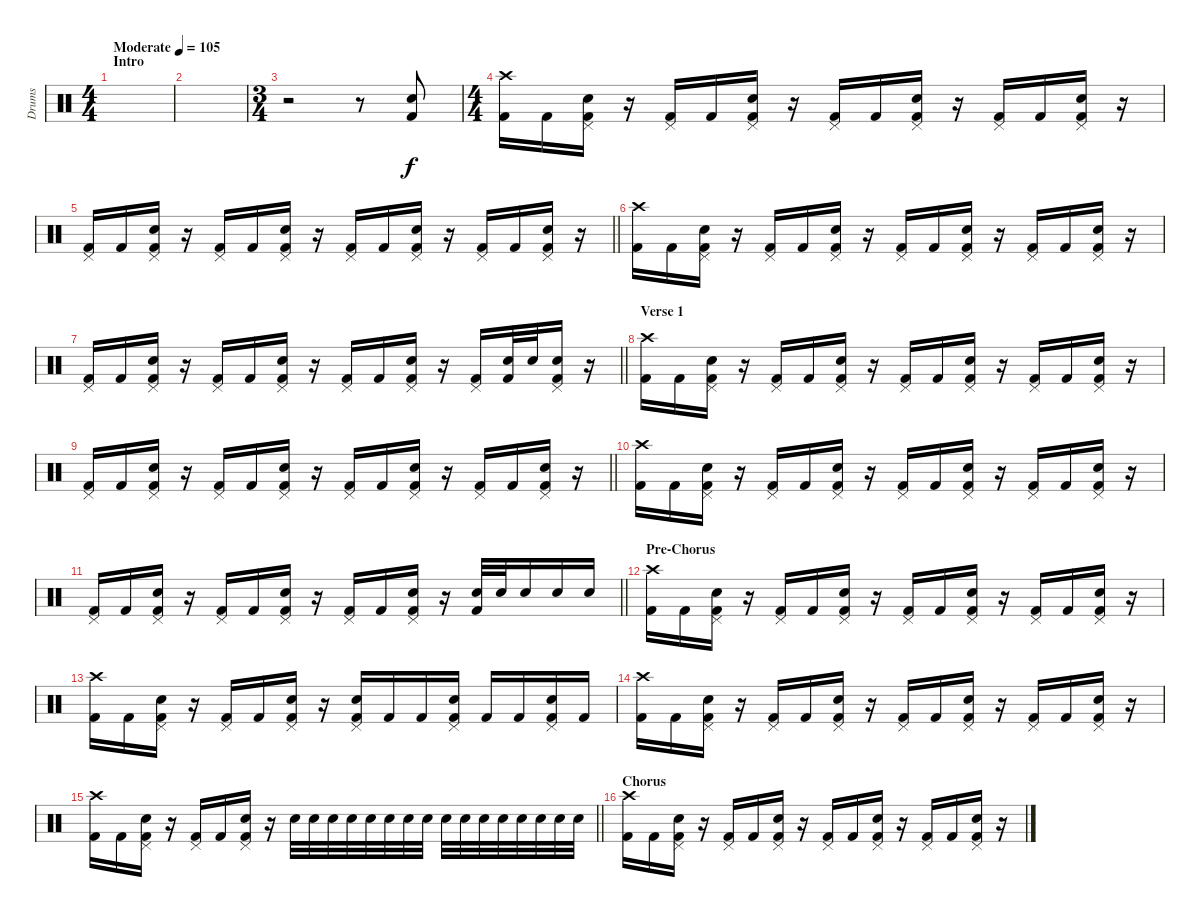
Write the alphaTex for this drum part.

\track ("Drums" "Drums") {instrument percussion}
\staff {score}
\articulation defaults
\ts (4 4)
\section ("" "Intro")
\tempo (105 "Moderate")
\clef neutral
\ks c
|
|
\ts (3 4)
r.2 r.8 ("Snare (hit) 2" "Kick (hit) 2").8 |
\ts (4 4)
("Crash high (hit)" "Kick (hit) 2").16 "Kick (hit) 2".16 ("Pedal Hi-Hat (hit)" "Snare (hit) 2" "Kick (hit) 2").16 r.16 ("Pedal Hi-Hat (hit)" "Kick (hit) 2").16 "Kick (hit) 2".16 ("Pedal Hi-Hat (hit)" "Snare (hit) 2" "Kick (hit) 2").16 r.16 ("Pedal Hi-Hat (hit)" "Kick (hit) 2").16 "Kick (hit) 2".16 ("Pedal Hi-Hat (hit)" "Snare (hit) 2" "Kick (hit) 2").16 r.16 ("Pedal Hi-Hat (hit)" "Kick (hit) 2").16 "Kick (hit) 2".16 ("Pedal Hi-Hat (hit)" "Snare (hit) 2" "Kick (hit) 2").16 r.16 |
\barLineRight lightlight
("Pedal Hi-Hat (hit)" "Kick (hit) 2").16 "Kick (hit) 2".16 ("Pedal Hi-Hat (hit)" "Snare (hit) 2" "Kick (hit) 2").16 r.16 ("Pedal Hi-Hat (hit)" "Kick (hit) 2").16 "Kick (hit) 2".16 ("Pedal Hi-Hat (hit)" "Snare (hit) 2" "Kick (hit) 2").16 r.16 ("Pedal Hi-Hat (hit)" "Kick (hit) 2").16 "Kick (hit) 2".16 ("Pedal Hi-Hat (hit)" "Snare (hit) 2" "Kick (hit) 2").16 r.16 ("Pedal Hi-Hat (hit)" "Kick (hit) 2").16 "Kick (hit) 2".16 ("Pedal Hi-Hat (hit)" "Snare (hit) 2" "Kick (hit) 2").16 r.16 |
("Crash high (hit)" "Kick (hit) 2").16 "Kick (hit) 2".16 ("Pedal Hi-Hat (hit)" "Snare (hit) 2" "Kick (hit) 2").16 r.16 ("Pedal Hi-Hat (hit)" "Kick (hit) 2").16 "Kick (hit) 2".16 ("Pedal Hi-Hat (hit)" "Snare (hit) 2" "Kick (hit) 2").16 r.16 ("Pedal Hi-Hat (hit)" "Kick (hit) 2").16 "Kick (hit) 2".16 ("Pedal Hi-Hat (hit)" "Snare (hit) 2" "Kick (hit) 2").16 r.16 ("Pedal Hi-Hat (hit)" "Kick (hit) 2").16 "Kick (hit) 2".16 ("Pedal Hi-Hat (hit)" "Snare (hit) 2" "Kick (hit) 2").16 r.16 |
\barLineRight lightlight
("Pedal Hi-Hat (hit)" "Kick (hit) 2").16 "Kick (hit) 2".16 ("Pedal Hi-Hat (hit)" "Snare (hit) 2" "Kick (hit) 2").16 r.16 ("Pedal Hi-Hat (hit)" "Kick (hit) 2").16 "Kick (hit) 2".16 ("Pedal Hi-Hat (hit)" "Snare (hit) 2" "Kick (hit) 2").16 r.16 ("Pedal Hi-Hat (hit)" "Kick (hit) 2").16 "Kick (hit) 2".16 ("Pedal Hi-Hat (hit)" "Snare (hit) 2" "Kick (hit) 2").16 r.16 ("Pedal Hi-Hat (hit)" "Kick (hit) 2").16 ("Snare (hit) 2" "Kick (hit) 2").32 "Snare (hit) 2".32 ("Pedal Hi-Hat (hit)" "Snare (hit) 2" "Kick (hit) 2").16 r.16 |
\section ("" "Verse 1")
("Crash high (hit)" "Kick (hit) 2").16 "Kick (hit) 2".16 ("Pedal Hi-Hat (hit)" "Snare (hit) 2" "Kick (hit) 2").16 r.16 ("Pedal Hi-Hat (hit)" "Kick (hit) 2").16 "Kick (hit) 2".16 ("Pedal Hi-Hat (hit)" "Snare (hit) 2" "Kick (hit) 2").16 r.16 ("Pedal Hi-Hat (hit)" "Kick (hit) 2").16 "Kick (hit) 2".16 ("Pedal Hi-Hat (hit)" "Snare (hit) 2" "Kick (hit) 2").16 r.16 ("Pedal Hi-Hat (hit)" "Kick (hit) 2").16 "Kick (hit) 2".16 ("Pedal Hi-Hat (hit)" "Snare (hit) 2" "Kick (hit) 2").16 r.16 |
\barLineRight lightlight
("Pedal Hi-Hat (hit)" "Kick (hit) 2").16 "Kick (hit) 2".16 ("Pedal Hi-Hat (hit)" "Snare (hit) 2" "Kick (hit) 2").16 r.16 ("Pedal Hi-Hat (hit)" "Kick (hit) 2").16 "Kick (hit) 2".16 ("Pedal Hi-Hat (hit)" "Snare (hit) 2" "Kick (hit) 2").16 r.16 ("Pedal Hi-Hat (hit)" "Kick (hit) 2").16 "Kick (hit) 2".16 ("Pedal Hi-Hat (hit)" "Snare (hit) 2" "Kick (hit) 2").16 r.16 ("Pedal Hi-Hat (hit)" "Kick (hit) 2").16 "Kick (hit) 2".16 ("Pedal Hi-Hat (hit)" "Snare (hit) 2" "Kick (hit) 2").16 r.16 |
("Crash high (hit)" "Kick (hit) 2").16 "Kick (hit) 2".16 ("Pedal Hi-Hat (hit)" "Snare (hit) 2" "Kick (hit) 2").16 r.16 ("Pedal Hi-Hat (hit)" "Kick (hit) 2").16 "Kick (hit) 2".16 ("Pedal Hi-Hat (hit)" "Snare (hit) 2" "Kick (hit) 2").16 r.16 ("Pedal Hi-Hat (hit)" "Kick (hit) 2").16 "Kick (hit) 2".16 ("Pedal Hi-Hat (hit)" "Snare (hit) 2" "Kick (hit) 2").16 r.16 ("Pedal Hi-Hat (hit)" "Kick (hit) 2").16 "Kick (hit) 2".16 ("Pedal Hi-Hat (hit)" "Snare (hit) 2" "Kick (hit) 2").16 r.16 |
\barLineRight lightlight
("Pedal Hi-Hat (hit)" "Kick (hit) 2").16 "Kick (hit) 2".16 ("Pedal Hi-Hat (hit)" "Snare (hit) 2" "Kick (hit) 2").16 r.16 ("Pedal Hi-Hat (hit)" "Kick (hit) 2").16 "Kick (hit) 2".16 ("Pedal Hi-Hat (hit)" "Snare (hit) 2" "Kick (hit) 2").16 r.16 ("Pedal Hi-Hat (hit)" "Kick (hit) 2").16 "Kick (hit) 2".16 ("Pedal Hi-Hat (hit)" "Snare (hit) 2" "Kick (hit) 2").16 r.16 ("Snare (hit) 2" "Kick (hit) 2").32 "Snare (hit) 2".32 "Snare (hit) 2".16 "Snare (hit) 2".16 "Snare (hit) 2".16 |
\section ("" "Pre-Chorus")
("Crash high (hit)" "Kick (hit) 2").16 "Kick (hit) 2".16 ("Pedal Hi-Hat (hit)" "Snare (hit) 2" "Kick (hit) 2").16 r.16 ("Pedal Hi-Hat (hit)" "Kick (hit) 2").16 "Kick (hit) 2".16 ("Pedal Hi-Hat (hit)" "Snare (hit) 2" "Kick (hit) 2").16 r.16 ("Pedal Hi-Hat (hit)" "Kick (hit) 2").16 "Kick (hit) 2".16 ("Pedal Hi-Hat (hit)" "Snare (hit) 2" "Kick (hit) 2").16 r.16 ("Pedal Hi-Hat (hit)" "Kick (hit) 2").16 "Kick (hit) 2".16 ("Pedal Hi-Hat (hit)" "Snare (hit) 2" "Kick (hit) 2").16 r.16 |
("Crash high (hit)" "Kick (hit) 2").16 "Kick (hit) 2".16 ("Pedal Hi-Hat (hit)" "Snare (hit) 2" "Kick (hit) 2").16 r.16 ("Pedal Hi-Hat (hit)" "Kick (hit) 2").16 "Kick (hit) 2".16 ("Pedal Hi-Hat (hit)" "Snare (hit) 2" "Kick (hit) 2").16 r.16 ("Pedal Hi-Hat (hit)" "Snare (hit) 2" "Kick (hit) 2").16 "Kick (hit) 2".16 "Kick (hit) 2".16 ("Pedal Hi-Hat (hit)" "Snare (hit) 2" "Kick (hit) 2").16 "Kick (hit) 2".16 "Kick (hit) 2".16 ("Pedal Hi-Hat (hit)" "Snare (hit) 2" "Kick (hit) 2").16 "Kick (hit) 2".16 |
("Crash high (hit)" "Kick (hit) 2").16 "Kick (hit) 2".16 ("Pedal Hi-Hat (hit)" "Snare (hit) 2" "Kick (hit) 2").16 r.16 ("Pedal Hi-Hat (hit)" "Kick (hit) 2").16 "Kick (hit) 2".16 ("Pedal Hi-Hat (hit)" "Snare (hit) 2" "Kick (hit) 2").16 r.16 ("Pedal Hi-Hat (hit)" "Kick (hit) 2").16 "Kick (hit) 2".16 ("Pedal Hi-Hat (hit)" "Snare (hit) 2" "Kick (hit) 2").16 r.16 ("Pedal Hi-Hat (hit)" "Kick (hit) 2").16 "Kick (hit) 2".16 ("Pedal Hi-Hat (hit)" "Snare (hit) 2" "Kick (hit) 2").16 r.16 |
\barLineRight lightlight
("Crash high (hit)" "Kick (hit) 2").16 "Kick (hit) 2".16 ("Pedal Hi-Hat (hit)" "Snare (hit) 2" "Kick (hit) 2").16 r.16 ("Pedal Hi-Hat (hit)" "Kick (hit) 2").16 "Kick (hit) 2".16 ("Pedal Hi-Hat (hit)" "Snare (hit) 2" "Kick (hit) 2").16 r.16 "Snare (hit) 2".32 "Snare (hit) 2".32 "Snare (hit) 2".32 "Snare (hit) 2".32 "Snare (hit) 2".32 "Snare (hit) 2".32 "Snare (hit) 2".32 "Snare (hit) 2".32 "Snare (hit) 2".32 "Snare (hit) 2".32 "Snare (hit) 2".32 "Snare (hit) 2".32 "Snare (hit) 2".32 "Snare (hit) 2".32 "Snare (hit) 2".32 "Snare (hit) 2".32 |
\section ("" "Chorus")
("Crash high (hit)" "Kick (hit) 2").16 "Kick (hit) 2".16 ("Pedal Hi-Hat (hit)" "Snare (hit) 2" "Kick (hit) 2").16 r.16 ("Pedal Hi-Hat (hit)" "Kick (hit) 2").16 "Kick (hit) 2".16 ("Pedal Hi-Hat (hit)" "Snare (hit) 2" "Kick (hit) 2").16 r.16 ("Pedal Hi-Hat (hit)" "Kick (hit) 2").16 "Kick (hit) 2".16 ("Pedal Hi-Hat (hit)" "Snare (hit) 2" "Kick (hit) 2").16 r.16 ("Pedal Hi-Hat (hit)" "Kick (hit) 2").16 "Kick (hit) 2".16 ("Pedal Hi-Hat (hit)" "Snare (hit) 2" "Kick (hit) 2").16 r.16
